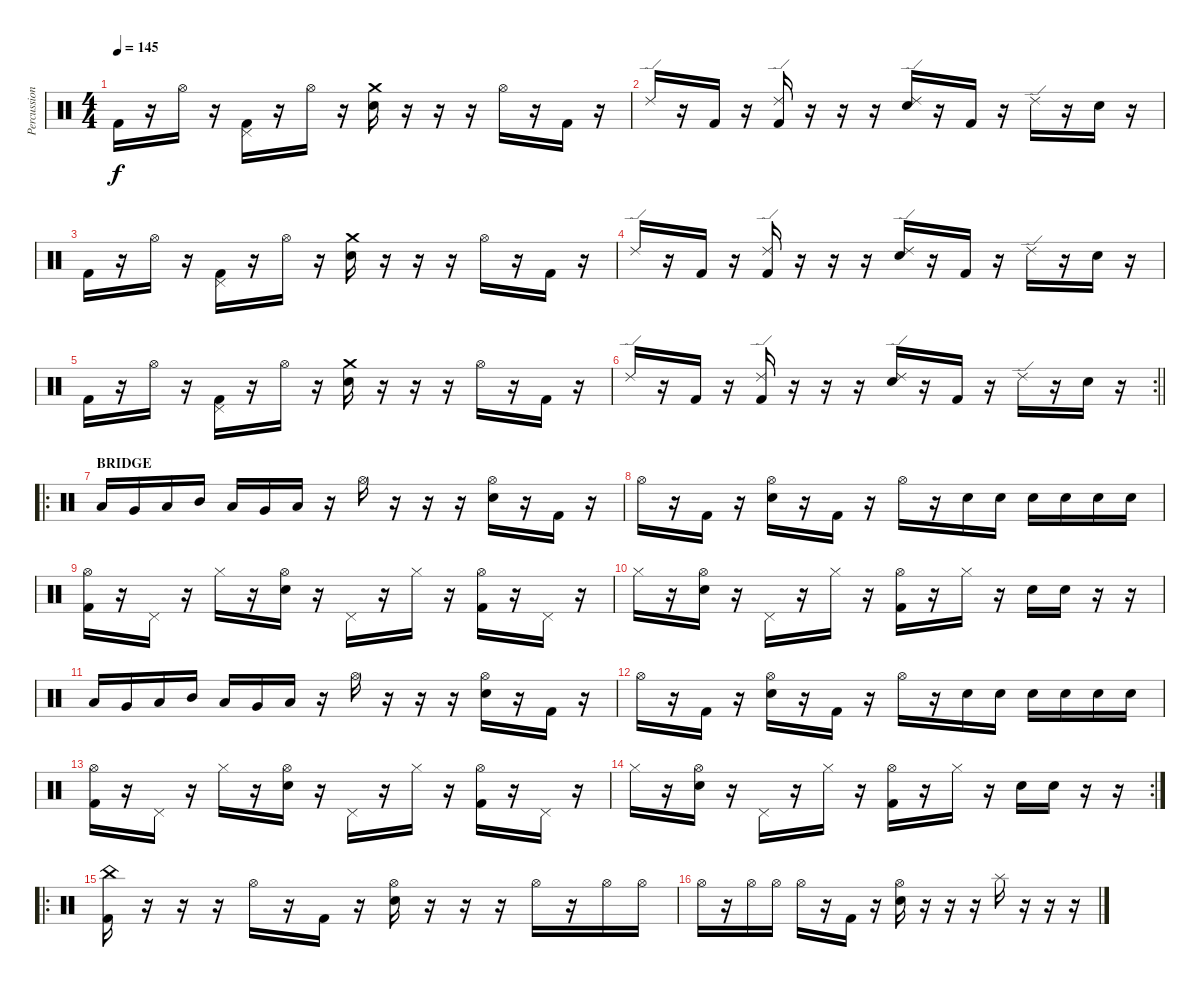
\track ("Percussion" "Percussion") {instrument percussion}
\staff {score}
\articulation defaults
\ts (4 4)
\tempo 145
\clef neutral
\ks c "Kick (hit) 2".16{dy f}
r.16 "Hi-Hat (open)".16 r.16 ("Kick (hit) 2" "Pedal Hi-Hat (hit)").16 r.16 "Hi-Hat (open)".16 r.16 ("Snare (hit) 2" "Crash medium (hit)").16 r.16 r.16 r.16 "Hi-Hat (open)".16 r.16 "Kick (hit) 2".16 r.16 |
"Ride (edge) 2".16 r.16 "Kick (hit) 2".16 r.16 ("Kick (hit) 2" "Ride (edge) 2").16 r.16 r.16 r.16 ("Snare (hit) 2" "Ride (edge) 2").16 r.16 "Kick (hit) 2".16 r.16 "Ride (edge) 2".16 r.16 "Snare (hit) 2".16 r.16 |
"Kick (hit) 2".16 r.16 "Hi-Hat (open)".16 r.16 ("Kick (hit) 2" "Pedal Hi-Hat (hit)").16 r.16 "Hi-Hat (open)".16 r.16 ("Snare (hit) 2" "Crash medium (hit)").16 r.16 r.16 r.16 "Hi-Hat (open)".16 r.16 "Kick (hit) 2".16 r.16 |
"Ride (edge) 2".16 r.16 "Kick (hit) 2".16 r.16 ("Kick (hit) 2" "Ride (edge) 2").16 r.16 r.16 r.16 ("Snare (hit) 2" "Ride (edge) 2").16 r.16 "Kick (hit) 2".16 r.16 "Ride (edge) 2".16 r.16 "Snare (hit) 2".16 r.16 |
"Kick (hit) 2".16 r.16 "Hi-Hat (open)".16 r.16 ("Kick (hit) 2" "Pedal Hi-Hat (hit)").16 r.16 "Hi-Hat (open)".16 r.16 ("Snare (hit) 2" "Crash medium (hit)").16 r.16 r.16 r.16 "Hi-Hat (open)".16 r.16 "Kick (hit) 2".16 r.16 |
\rc 2
\barLineRight lightlight "Ride (edge) 2".16
r.16 "Kick (hit) 2".16 r.16 ("Kick (hit) 2" "Ride (edge) 2").16 r.16 r.16 r.16 ("Snare (hit) 2" "Ride (edge) 2").16 r.16 "Kick (hit) 2".16 r.16 "Ride (edge) 2".16 r.16 "Snare (hit) 2".16 r.16 |
\ro
\section ("" "BRIDGE")
"Low Tom (hit)".16 "Very Low Tom (hit)".16 "Low Tom (hit)".16 "Mid Tom (hit)".16 "Low Tom (hit)".16 "Very Low Tom (hit)".16 "Low Tom (hit)".16 r.16 "Hi-Hat (open)".16 r.16 r.16 r.16 ("Snare (hit) 2" "Hi-Hat (open)").16 r.16 "Kick (hit) 2".16 r.16 |
"Hi-Hat (open)".16 r.16 "Kick (hit) 2".16 r.16 ("Snare (hit) 2" "Hi-Hat (open)").16 r.16 "Kick (hit) 2".16 r.16 "Hi-Hat (open)".16 r.16 "Snare (hit) 2".16 "Snare (hit) 2".16 "Snare (hit) 2".16 "Snare (hit) 2".16 "Snare (hit) 2".16 "Snare (hit) 2".16 |
("Kick (hit) 2" "Hi-Hat (open)").16 r.16 "Pedal Hi-Hat (hit)".16 r.16 "Hi-Hat (closed)".16 r.16 ("Snare (hit) 2" "Hi-Hat (open)").16 r.16 "Pedal Hi-Hat (hit)".16 r.16 "Hi-Hat (closed)".16 r.16 ("Kick (hit) 2" "Hi-Hat (open)").16 r.16 "Pedal Hi-Hat (hit)".16 r.16 |
"Hi-Hat (closed)".16 r.16 ("Snare (hit) 2" "Hi-Hat (open)").16 r.16 "Pedal Hi-Hat (hit)".16 r.16 "Hi-Hat (closed)".16 r.16 ("Kick (hit) 2" "Hi-Hat (open)").16 r.16 "Hi-Hat (closed)".16 r.16 "Snare (hit) 2".16 "Snare (hit) 2".16 r.16 r.16 |
"Low Tom (hit)".16 "Very Low Tom (hit)".16 "Low Tom (hit)".16 "Mid Tom (hit)".16 "Low Tom (hit)".16 "Very Low Tom (hit)".16 "Low Tom (hit)".16 r.16 "Hi-Hat (open)".16 r.16 r.16 r.16 ("Snare (hit) 2" "Hi-Hat (open)").16 r.16 "Kick (hit) 2".16 r.16 |
"Hi-Hat (open)".16 r.16 "Kick (hit) 2".16 r.16 ("Snare (hit) 2" "Hi-Hat (open)").16 r.16 "Kick (hit) 2".16 r.16 "Hi-Hat (open)".16 r.16 "Snare (hit) 2".16 "Snare (hit) 2".16 "Snare (hit) 2".16 "Snare (hit) 2".16 "Snare (hit) 2".16 "Snare (hit) 2".16 |
("Kick (hit) 2" "Hi-Hat (open)").16 r.16 "Pedal Hi-Hat (hit)".16 r.16 "Hi-Hat (closed)".16 r.16 ("Snare (hit) 2" "Hi-Hat (open)").16 r.16 "Pedal Hi-Hat (hit)".16 r.16 "Hi-Hat (closed)".16 r.16 ("Kick (hit) 2" "Hi-Hat (open)").16 r.16 "Pedal Hi-Hat (hit)".16 r.16 |
\rc 2 "Hi-Hat (closed)".16
r.16 ("Snare (hit) 2" "Hi-Hat (open)").16 r.16 "Pedal Hi-Hat (hit)".16 r.16 "Hi-Hat (closed)".16 r.16 ("Kick (hit) 2" "Hi-Hat (open)").16 r.16 "Hi-Hat (closed)".16 r.16 "Snare (hit) 2".16 "Snare (hit) 2".16 r.16 r.16 |
\ro
("Kick (hit) 2" "China (hit)").16{volume 13} r.16 r.16 r.16 "Hi-Hat (open)".16 r.16 "Kick (hit) 2".16 r.16 ("Snare (hit) 2" "Hi-Hat (open)").16 r.16 r.16 r.16 "Hi-Hat (open)".16 r.16 "Hi-Hat (open)".16 "Hi-Hat (open)".16 |
"Hi-Hat (open)".16 r.16 "Hi-Hat (open)".16 "Hi-Hat (open)".16 "Hi-Hat (open)".16 r.16 "Kick (hit) 2".16 r.16 ("Snare (hit) 2" "Hi-Hat (open)").16 r.16 r.16 r.16 "Splash (hit)".16 r.16 r.16 r.16
